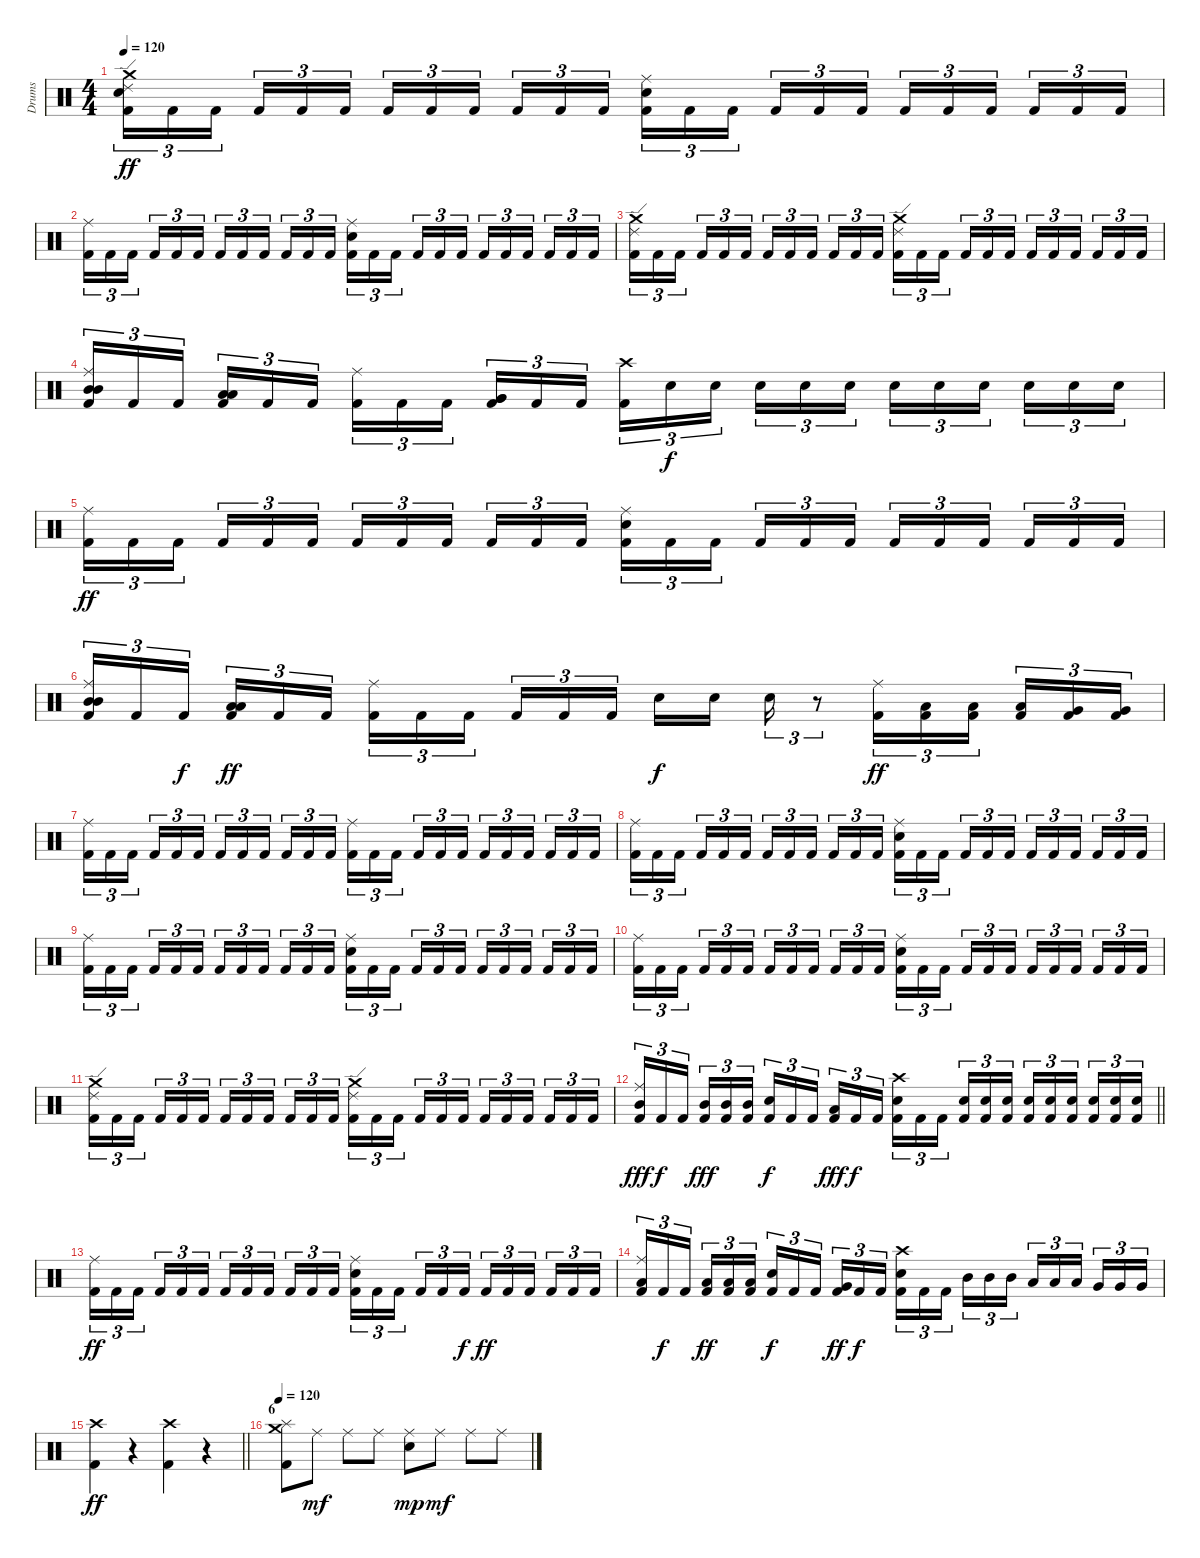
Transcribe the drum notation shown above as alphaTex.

\track ("Drums" "Drums") {instrument percussion}
\staff {score}
\articulation defaults
\ts (4 4)
\tempo 120
\clef neutral
\ks c
("Crash medium (hit)" "Ride (edge) 2" "Electric Snare (hit)" "Kick (hit) 2").16{tu (3 2) dy ff} "Kick (hit) 2".16{tu (3 2)} "Kick (hit) 2".16{tu (3 2)} "Kick (hit) 2".16{tu (3 2)} "Kick (hit) 2".16{tu (3 2)} "Kick (hit) 2".16{tu (3 2)} "Kick (hit) 2".16{tu (3 2)} "Kick (hit) 2".16{tu (3 2)} "Kick (hit) 2".16{tu (3 2)} "Kick (hit) 2".16{tu (3 2)} "Kick (hit) 2".16{tu (3 2)} "Kick (hit) 2".16{tu (3 2)} ("Ride (middle)" "Electric Snare (hit)" "Kick (hit) 2").16{tu (3 2)} "Kick (hit) 2".16{tu (3 2)} "Kick (hit) 2".16{tu (3 2)} "Kick (hit) 2".16{tu (3 2)} "Kick (hit) 2".16{tu (3 2)} "Kick (hit) 2".16{tu (3 2)} "Kick (hit) 2".16{tu (3 2)} "Kick (hit) 2".16{tu (3 2)} "Kick (hit) 2".16{tu (3 2)} "Kick (hit) 2".16{tu (3 2)} "Kick (hit) 2".16{tu (3 2)} "Kick (hit) 2".16{tu (3 2)} |
("Ride (middle)" "Kick (hit) 2").16{tu (3 2)} "Kick (hit) 2".16{tu (3 2)} "Kick (hit) 2".16{tu (3 2)} "Kick (hit) 2".16{tu (3 2)} "Kick (hit) 2".16{tu (3 2)} "Kick (hit) 2".16{tu (3 2)} "Kick (hit) 2".16{tu (3 2)} "Kick (hit) 2".16{tu (3 2)} "Kick (hit) 2".16{tu (3 2)} "Kick (hit) 2".16{tu (3 2)} "Kick (hit) 2".16{tu (3 2)} "Kick (hit) 2".16{tu (3 2)} ("Ride (middle)" "Electric Snare (hit)" "Kick (hit) 2").16{tu (3 2)} "Kick (hit) 2".16{tu (3 2)} "Kick (hit) 2".16{tu (3 2)} "Kick (hit) 2".16{tu (3 2)} "Kick (hit) 2".16{tu (3 2)} "Kick (hit) 2".16{tu (3 2)} "Kick (hit) 2".16{tu (3 2)} "Kick (hit) 2".16{tu (3 2)} "Kick (hit) 2".16{tu (3 2)} "Kick (hit) 2".16{tu (3 2)} "Kick (hit) 2".16{tu (3 2)} "Kick (hit) 2".16{tu (3 2)} |
("Crash medium (hit)" "Ride (edge) 2" "Kick (hit) 2").16{tu (3 2)} "Kick (hit) 2".16{tu (3 2)} "Kick (hit) 2".16{tu (3 2)} "Kick (hit) 2".16{tu (3 2)} "Kick (hit) 2".16{tu (3 2)} "Kick (hit) 2".16{tu (3 2)} "Kick (hit) 2".16{tu (3 2)} "Kick (hit) 2".16{tu (3 2)} "Kick (hit) 2".16{tu (3 2)} "Kick (hit) 2".16{tu (3 2)} "Kick (hit) 2".16{tu (3 2)} "Kick (hit) 2".16{tu (3 2)} ("Crash medium (hit)" "Ride (edge) 2" "Kick (hit) 2").16{tu (3 2)} "Kick (hit) 2".16{tu (3 2)} "Kick (hit) 2".16{tu (3 2)} "Kick (hit) 2".16{tu (3 2)} "Kick (hit) 2".16{tu (3 2)} "Kick (hit) 2".16{tu (3 2)} "Kick (hit) 2".16{tu (3 2)} "Kick (hit) 2".16{tu (3 2)} "Kick (hit) 2".16{tu (3 2)} "Kick (hit) 2".16{tu (3 2)} "Kick (hit) 2".16{tu (3 2)} "Kick (hit) 2".16{tu (3 2)} |
("Ride (middle)" "Mid Tom (hit)" "Mid Tom (hit)" "Kick (hit) 2").16{tu (3 2)} "Kick (hit) 2".16{tu (3 2)} "Kick (hit) 2".16{tu (3 2)} ("Low Tom (hit)" "Low Tom (hit)" "Kick (hit) 2").16{tu (3 2)} "Kick (hit) 2".16{tu (3 2)} "Kick (hit) 2".16{tu (3 2)} ("Ride (middle)" "Kick (hit) 2").16{tu (3 2)} "Kick (hit) 2".16{tu (3 2)} "Kick (hit) 2".16{tu (3 2)} ("Very Low Tom (hit)" "Very Low Tom (hit)" "Kick (hit) 2").16{tu (3 2)} "Kick (hit) 2".16{tu (3 2)} "Kick (hit) 2".16{tu (3 2)} ("Crash high (hit)" "Kick (hit) 2").16{tu (3 2)} "Electric Snare (hit)".16{tu (3 2) dy f} "Electric Snare (hit)".16{tu (3 2)} "Electric Snare (hit)".16{tu (3 2)} "Electric Snare (hit)".16{tu (3 2)} "Electric Snare (hit)".16{tu (3 2)} "Electric Snare (hit)".16{tu (3 2)} "Electric Snare (hit)".16{tu (3 2)} "Electric Snare (hit)".16{tu (3 2)} "Electric Snare (hit)".16{tu (3 2)} "Electric Snare (hit)".16{tu (3 2)} "Electric Snare (hit)".16{tu (3 2)} |
("Ride (middle)" "Kick (hit) 2").16{tu (3 2) dy ff} "Kick (hit) 2".16{tu (3 2)} "Kick (hit) 2".16{tu (3 2)} "Kick (hit) 2".16{tu (3 2)} "Kick (hit) 2".16{tu (3 2)} "Kick (hit) 2".16{tu (3 2)} "Kick (hit) 2".16{tu (3 2)} "Kick (hit) 2".16{tu (3 2)} "Kick (hit) 2".16{tu (3 2)} "Kick (hit) 2".16{tu (3 2)} "Kick (hit) 2".16{tu (3 2)} "Kick (hit) 2".16{tu (3 2)} ("Ride (middle)" "Electric Snare (hit)" "Kick (hit) 2").16{tu (3 2)} "Kick (hit) 2".16{tu (3 2)} "Kick (hit) 2".16{tu (3 2)} "Kick (hit) 2".16{tu (3 2)} "Kick (hit) 2".16{tu (3 2)} "Kick (hit) 2".16{tu (3 2)} "Kick (hit) 2".16{tu (3 2)} "Kick (hit) 2".16{tu (3 2)} "Kick (hit) 2".16{tu (3 2)} "Kick (hit) 2".16{tu (3 2)} "Kick (hit) 2".16{tu (3 2)} "Kick (hit) 2".16{tu (3 2)} |
("Ride (middle)" "Mid Tom (hit)" "Mid Tom (hit)" "Kick (hit) 2").16{tu (3 2)} "Kick (hit) 2".16{tu (3 2)} "Kick (hit) 2".16{tu (3 2) dy f} ("Low Tom (hit)" "Low Tom (hit)" "Kick (hit) 2").16{tu (3 2) dy ff} "Kick (hit) 2".16{tu (3 2)} "Kick (hit) 2".16{tu (3 2)} ("Ride (middle)" "Kick (hit) 2").16{tu (3 2)} "Kick (hit) 2".16{tu (3 2)} "Kick (hit) 2".16{tu (3 2)} "Kick (hit) 2".16{tu (3 2)} "Kick (hit) 2".16{tu (3 2)} "Kick (hit) 2".16{tu (3 2)} "Electric Snare (hit)".16{dy f} "Electric Snare (hit)".16 "Electric Snare (hit)".16{tu (3 2)} r.8{tu (3 2)} ("Ride (middle)" "Kick (hit) 2").16{tu (3 2) dy ff} ("Low Tom (hit)" "Kick (hit) 2").16{tu (3 2)} ("Low Tom (hit)" "Kick (hit) 2").16{tu (3 2)} ("Low Tom (hit)" "Kick (hit) 2").16{tu (3 2)} ("Very Low Tom (hit)" "Kick (hit) 2").16{tu (3 2)} ("Very Low Tom (hit)" "Kick (hit) 2").16{tu (3 2)} |
("Ride (middle)" "Kick (hit) 2").16{tu (3 2)} "Kick (hit) 2".16{tu (3 2)} "Kick (hit) 2".16{tu (3 2)} "Kick (hit) 2".16{tu (3 2)} "Kick (hit) 2".16{tu (3 2)} "Kick (hit) 2".16{tu (3 2)} "Kick (hit) 2".16{tu (3 2)} "Kick (hit) 2".16{tu (3 2)} "Kick (hit) 2".16{tu (3 2)} "Kick (hit) 2".16{tu (3 2)} "Kick (hit) 2".16{tu (3 2)} "Kick (hit) 2".16{tu (3 2)} ("Ride (middle)" "Kick (hit) 2").16{tu (3 2)} "Kick (hit) 2".16{tu (3 2)} "Kick (hit) 2".16{tu (3 2)} "Kick (hit) 2".16{tu (3 2)} "Kick (hit) 2".16{tu (3 2)} "Kick (hit) 2".16{tu (3 2)} "Kick (hit) 2".16{tu (3 2)} "Kick (hit) 2".16{tu (3 2)} "Kick (hit) 2".16{tu (3 2)} "Kick (hit) 2".16{tu (3 2)} "Kick (hit) 2".16{tu (3 2)} "Kick (hit) 2".16{tu (3 2)} |
("Ride (middle)" "Kick (hit) 2").16{tu (3 2)} "Kick (hit) 2".16{tu (3 2)} "Kick (hit) 2".16{tu (3 2)} "Kick (hit) 2".16{tu (3 2)} "Kick (hit) 2".16{tu (3 2)} "Kick (hit) 2".16{tu (3 2)} "Kick (hit) 2".16{tu (3 2)} "Kick (hit) 2".16{tu (3 2)} "Kick (hit) 2".16{tu (3 2)} "Kick (hit) 2".16{tu (3 2)} "Kick (hit) 2".16{tu (3 2)} "Kick (hit) 2".16{tu (3 2)} ("Ride (middle)" "Electric Snare (hit)" "Kick (hit) 2").16{tu (3 2)} "Kick (hit) 2".16{tu (3 2)} "Kick (hit) 2".16{tu (3 2)} "Kick (hit) 2".16{tu (3 2)} "Kick (hit) 2".16{tu (3 2)} "Kick (hit) 2".16{tu (3 2)} "Kick (hit) 2".16{tu (3 2)} "Kick (hit) 2".16{tu (3 2)} "Kick (hit) 2".16{tu (3 2)} "Kick (hit) 2".16{tu (3 2)} "Kick (hit) 2".16{tu (3 2)} "Kick (hit) 2".16{tu (3 2)} |
("Ride (middle)" "Kick (hit) 2").16{tu (3 2)} "Kick (hit) 2".16{tu (3 2)} "Kick (hit) 2".16{tu (3 2)} "Kick (hit) 2".16{tu (3 2)} "Kick (hit) 2".16{tu (3 2)} "Kick (hit) 2".16{tu (3 2)} "Kick (hit) 2".16{tu (3 2)} "Kick (hit) 2".16{tu (3 2)} "Kick (hit) 2".16{tu (3 2)} "Kick (hit) 2".16{tu (3 2)} "Kick (hit) 2".16{tu (3 2)} "Kick (hit) 2".16{tu (3 2)} ("Ride (middle)" "Electric Snare (hit)" "Kick (hit) 2").16{tu (3 2)} "Kick (hit) 2".16{tu (3 2)} "Kick (hit) 2".16{tu (3 2)} "Kick (hit) 2".16{tu (3 2)} "Kick (hit) 2".16{tu (3 2)} "Kick (hit) 2".16{tu (3 2)} "Kick (hit) 2".16{tu (3 2)} "Kick (hit) 2".16{tu (3 2)} "Kick (hit) 2".16{tu (3 2)} "Kick (hit) 2".16{tu (3 2)} "Kick (hit) 2".16{tu (3 2)} "Kick (hit) 2".16{tu (3 2)} |
("Ride (middle)" "Kick (hit) 2").16{tu (3 2)} "Kick (hit) 2".16{tu (3 2)} "Kick (hit) 2".16{tu (3 2)} "Kick (hit) 2".16{tu (3 2)} "Kick (hit) 2".16{tu (3 2)} "Kick (hit) 2".16{tu (3 2)} "Kick (hit) 2".16{tu (3 2)} "Kick (hit) 2".16{tu (3 2)} "Kick (hit) 2".16{tu (3 2)} "Kick (hit) 2".16{tu (3 2)} "Kick (hit) 2".16{tu (3 2)} "Kick (hit) 2".16{tu (3 2)} ("Ride (middle)" "Electric Snare (hit)" "Kick (hit) 2").16{tu (3 2)} "Kick (hit) 2".16{tu (3 2)} "Kick (hit) 2".16{tu (3 2)} "Kick (hit) 2".16{tu (3 2)} "Kick (hit) 2".16{tu (3 2)} "Kick (hit) 2".16{tu (3 2)} "Kick (hit) 2".16{tu (3 2)} "Kick (hit) 2".16{tu (3 2)} "Kick (hit) 2".16{tu (3 2)} "Kick (hit) 2".16{tu (3 2)} "Kick (hit) 2".16{tu (3 2)} "Kick (hit) 2".16{tu (3 2)} |
("Crash medium (hit)" "Ride (edge) 2" "Kick (hit) 2").16{tu (3 2)} "Kick (hit) 2".16{tu (3 2)} "Kick (hit) 2".16{tu (3 2)} "Kick (hit) 2".16{tu (3 2)} "Kick (hit) 2".16{tu (3 2)} "Kick (hit) 2".16{tu (3 2)} "Kick (hit) 2".16{tu (3 2)} "Kick (hit) 2".16{tu (3 2)} "Kick (hit) 2".16{tu (3 2)} "Kick (hit) 2".16{tu (3 2)} "Kick (hit) 2".16{tu (3 2)} "Kick (hit) 2".16{tu (3 2)} ("Crash medium (hit)" "Ride (edge) 2" "Kick (hit) 2").16{tu (3 2)} "Kick (hit) 2".16{tu (3 2)} "Kick (hit) 2".16{tu (3 2)} "Kick (hit) 2".16{tu (3 2)} "Kick (hit) 2".16{tu (3 2)} "Kick (hit) 2".16{tu (3 2)} "Kick (hit) 2".16{tu (3 2)} "Kick (hit) 2".16{tu (3 2)} "Kick (hit) 2".16{tu (3 2)} "Kick (hit) 2".16{tu (3 2)} "Kick (hit) 2".16{tu (3 2)} "Kick (hit) 2".16{tu (3 2)} |
\barLineRight lightlight
("Ride (middle)" "Mid Tom (hit)" "Kick (hit) 2").16{tu (3 2) dy fff} "Kick (hit) 2".16{tu (3 2) dy f} "Kick (hit) 2".16{tu (3 2)} ("Mid Tom (hit)" "Kick (hit) 2").16{tu (3 2) dy fff} ("Mid Tom (hit)" "Kick (hit) 2").16{tu (3 2)} ("Mid Tom (hit)" "Kick (hit) 2").16{tu (3 2)} ("Electric Snare (hit)" "Kick (hit) 2").16{tu (3 2) dy f} "Kick (hit) 2".16{tu (3 2)} "Kick (hit) 2".16{tu (3 2)} ("Low Tom (hit)" "Kick (hit) 2").16{tu (3 2) dy fff} "Kick (hit) 2".16{tu (3 2) dy f} "Kick (hit) 2".16{tu (3 2)} ("Crash high (hit)" "Electric Snare (hit)" "Kick (hit) 2").16{tu (3 2)} "Kick (hit) 2".16{tu (3 2)} "Kick (hit) 2".16{tu (3 2)} ("Electric Snare (hit)" "Kick (hit) 2").16{tu (3 2)} ("Electric Snare (hit)" "Kick (hit) 2").16{tu (3 2)} ("Electric Snare (hit)" "Kick (hit) 2").16{tu (3 2)} ("Electric Snare (hit)" "Kick (hit) 2").16{tu (3 2)} ("Electric Snare (hit)" "Kick (hit) 2").16{tu (3 2)} ("Electric Snare (hit)" "Kick (hit) 2").16{tu (3 2)} ("Electric Snare (hit)" "Kick (hit) 2").16{tu (3 2)} ("Electric Snare (hit)" "Kick (hit) 2").16{tu (3 2)} ("Electric Snare (hit)" "Kick (hit) 2").16{tu (3 2)} |
("Ride (middle)" "Kick (hit) 2").16{tu (3 2) dy ff} "Kick (hit) 2".16{tu (3 2)} "Kick (hit) 2".16{tu (3 2)} "Kick (hit) 2".16{tu (3 2)} "Kick (hit) 2".16{tu (3 2)} "Kick (hit) 2".16{tu (3 2)} "Kick (hit) 2".16{tu (3 2)} "Kick (hit) 2".16{tu (3 2)} "Kick (hit) 2".16{tu (3 2)} "Kick (hit) 2".16{tu (3 2)} "Kick (hit) 2".16{tu (3 2)} "Kick (hit) 2".16{tu (3 2)} ("Ride (middle)" "Electric Snare (hit)" "Kick (hit) 2").16{tu (3 2)} "Kick (hit) 2".16{tu (3 2)} "Kick (hit) 2".16{tu (3 2)} "Kick (hit) 2".16{tu (3 2)} "Kick (hit) 2".16{tu (3 2)} "Kick (hit) 2".16{tu (3 2) dy f} "Kick (hit) 2".16{tu (3 2) dy ff} "Kick (hit) 2".16{tu (3 2)} "Kick (hit) 2".16{tu (3 2)} "Kick (hit) 2".16{tu (3 2)} "Kick (hit) 2".16{tu (3 2)} "Kick (hit) 2".16{tu (3 2)} |
("Ride (middle)" "Low Tom (hit)" "Kick (hit) 2").16{tu (3 2)} "Kick (hit) 2".16{tu (3 2) dy f} "Kick (hit) 2".16{tu (3 2)} ("Low Tom (hit)" "Kick (hit) 2").16{tu (3 2) dy ff} ("Low Tom (hit)" "Kick (hit) 2").16{tu (3 2)} ("Low Tom (hit)" "Kick (hit) 2").16{tu (3 2)} ("Electric Snare (hit)" "Kick (hit) 2").16{tu (3 2) dy f} "Kick (hit) 2".16{tu (3 2)} "Kick (hit) 2".16{tu (3 2)} ("Very Low Tom (hit)" "Kick (hit) 2").16{tu (3 2) dy ff} "Kick (hit) 2".16{tu (3 2) dy f} "Kick (hit) 2".16{tu (3 2)} ("Crash high (hit)" "Electric Snare (hit)" "Kick (hit) 2").16{tu (3 2)} "Kick (hit) 2".16{tu (3 2)} "Kick (hit) 2".16{tu (3 2)} "Mid Tom (hit)".16{tu (3 2)} "Mid Tom (hit)".16{tu (3 2)} "Mid Tom (hit)".16{tu (3 2)} "Low Tom (hit)".16{tu (3 2)} "Low Tom (hit)".16{tu (3 2)} "Low Tom (hit)".16{tu (3 2)} "Very Low Tom (hit)".16{tu (3 2)} "Very Low Tom (hit)".16{tu (3 2)} "Very Low Tom (hit)".16{tu (3 2)} |
\barLineRight lightlight
("Crash high (hit)" "Kick (hit) 2").4{dy ff} r.4 ("Crash high (hit)" "Kick (hit) 2").4 r.4 |
\section ("" "6")
\tempo 120
("Splash (hit)" "Crash medium (hit)" "Kick (hit) 2").8 "Ride (middle)".8{dy mf} "Ride (middle)".8 "Ride (middle)".8 ("Ride (middle)" "Electric Snare (hit)").8{dy mp} "Ride (middle)".8{dy mf} "Ride (middle)".8 "Ride (middle)".8
